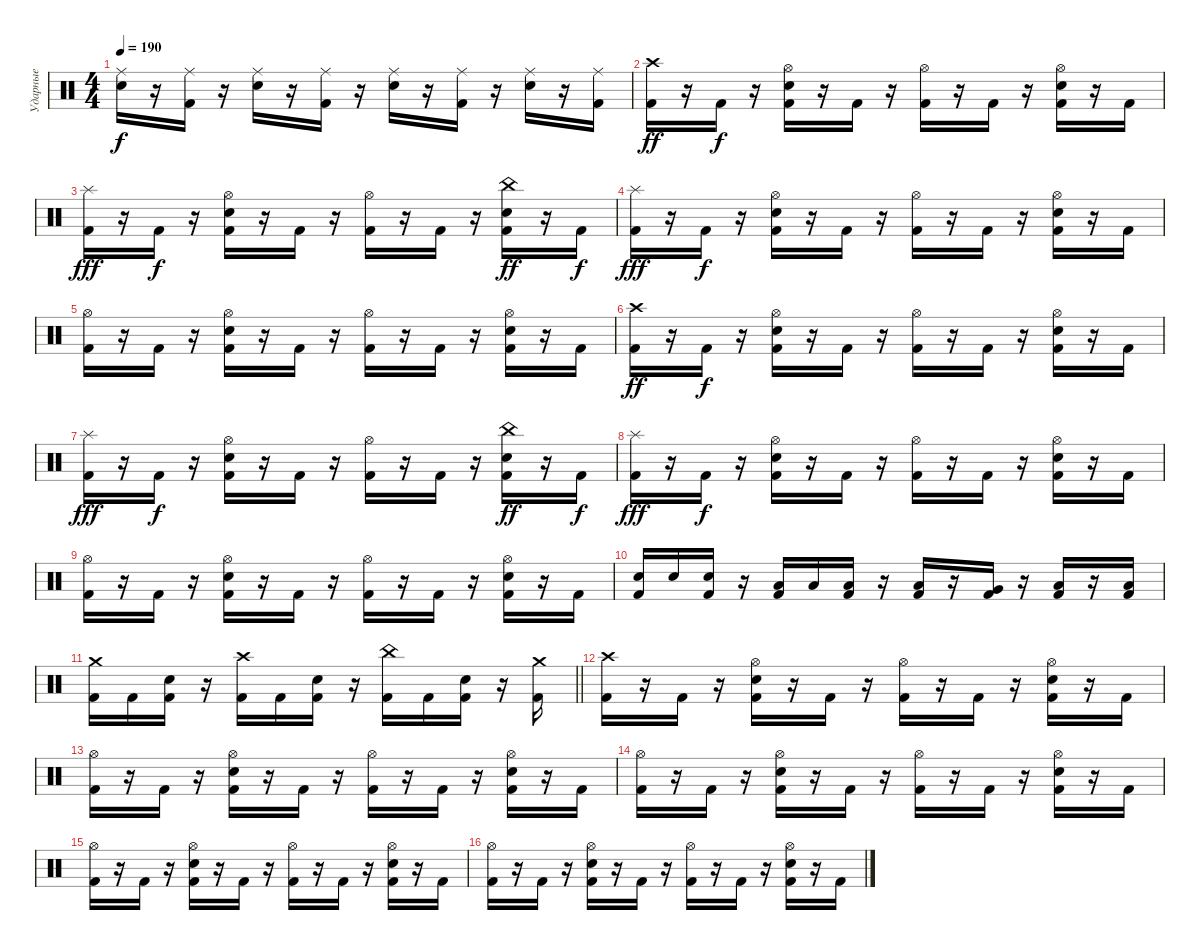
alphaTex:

\track ("Ударные" "Ударные") {instrument percussion}
\staff {score}
\articulation defaults
\ts (4 4)
\tempo 190
\clef neutral
\ks c
("Ride (middle)" "Snare (hit) 2").16{dy f} r.16 ("Ride (middle)" "Kick (hit) 2").16 r.16 ("Ride (middle)" "Snare (hit) 2").16 r.16 ("Ride (middle)" "Kick (hit) 2").16 r.16 ("Ride (middle)" "Snare (hit) 2").16 r.16 ("Ride (middle)" "Kick (hit) 2").16 r.16 ("Ride (middle)" "Snare (hit) 2").16 r.16 ("Ride (middle)" "Kick (hit) 2").16 |
("Crash high (hit)" "Kick (hit) 2").16{dy ff} r.16 "Kick (hit) 2".16{dy f} r.16 ("Hi-Hat (open)" "Snare (hit) 2" "Kick (hit) 2").16 r.16 "Kick (hit) 2".16 r.16 ("Hi-Hat (open)" "Kick (hit) 2").16 r.16 "Kick (hit) 2".16 r.16 ("Hi-Hat (open)" "Snare (hit) 2" "Kick (hit) 2").16 r.16 "Kick (hit) 2".16 |
("Splash (hit)" "Kick (hit) 2").16{dy fff} r.16 "Kick (hit) 2".16{dy f} r.16 ("Hi-Hat (open)" "Snare (hit) 2" "Kick (hit) 2").16 r.16 "Kick (hit) 2".16 r.16 ("Hi-Hat (open)" "Kick (hit) 2").16 r.16 "Kick (hit) 2".16 r.16 ("China (hit)" "Snare (hit) 2" "Kick (hit) 2").16{dy ff} r.16 "Kick (hit) 2".16{dy f} |
("Splash (hit)" "Kick (hit) 2").16{dy fff} r.16 "Kick (hit) 2".16{dy f} r.16 ("Hi-Hat (open)" "Snare (hit) 2" "Kick (hit) 2").16 r.16 "Kick (hit) 2".16 r.16 ("Hi-Hat (open)" "Kick (hit) 2").16 r.16 "Kick (hit) 2".16 r.16 ("Hi-Hat (open)" "Snare (hit) 2" "Kick (hit) 2").16 r.16 "Kick (hit) 2".16 |
("Hi-Hat (open)" "Kick (hit) 2").16 r.16 "Kick (hit) 2".16 r.16 ("Hi-Hat (open)" "Snare (hit) 2" "Kick (hit) 2").16 r.16 "Kick (hit) 2".16 r.16 ("Hi-Hat (open)" "Kick (hit) 2").16 r.16 "Kick (hit) 2".16 r.16 ("Hi-Hat (open)" "Snare (hit) 2" "Kick (hit) 2").16 r.16 "Kick (hit) 2".16 |
("Crash high (hit)" "Kick (hit) 2").16{dy ff} r.16 "Kick (hit) 2".16{dy f} r.16 ("Hi-Hat (open)" "Snare (hit) 2" "Kick (hit) 2").16 r.16 "Kick (hit) 2".16 r.16 ("Hi-Hat (open)" "Kick (hit) 2").16 r.16 "Kick (hit) 2".16 r.16 ("Hi-Hat (open)" "Snare (hit) 2" "Kick (hit) 2").16 r.16 "Kick (hit) 2".16 |
("Splash (hit)" "Kick (hit) 2").16{dy fff} r.16 "Kick (hit) 2".16{dy f} r.16 ("Hi-Hat (open)" "Snare (hit) 2" "Kick (hit) 2").16 r.16 "Kick (hit) 2".16 r.16 ("Hi-Hat (open)" "Kick (hit) 2").16 r.16 "Kick (hit) 2".16 r.16 ("China (hit)" "Snare (hit) 2" "Kick (hit) 2").16{dy ff} r.16 "Kick (hit) 2".16{dy f} |
("Splash (hit)" "Kick (hit) 2").16{dy fff} r.16 "Kick (hit) 2".16{dy f} r.16 ("Hi-Hat (open)" "Snare (hit) 2" "Kick (hit) 2").16 r.16 "Kick (hit) 2".16 r.16 ("Hi-Hat (open)" "Kick (hit) 2").16 r.16 "Kick (hit) 2".16 r.16 ("Hi-Hat (open)" "Snare (hit) 2" "Kick (hit) 2").16 r.16 "Kick (hit) 2".16 |
("Hi-Hat (open)" "Kick (hit) 2").16 r.16 "Kick (hit) 2".16 r.16 ("Hi-Hat (open)" "Snare (hit) 2" "Kick (hit) 2").16 r.16 "Kick (hit) 2".16 r.16 ("Hi-Hat (open)" "Kick (hit) 2").16 r.16 "Kick (hit) 2".16 r.16 ("Hi-Hat (open)" "Snare (hit) 2" "Kick (hit) 2").16 r.16 "Kick (hit) 2".16 |
("Snare (hit) 2" "Kick (hit) 2").16 "Snare (hit) 2".16 ("Snare (hit) 2" "Kick (hit) 2").16 r.16 ("Low Tom (hit)" "Kick (hit) 2").16 "Low Tom (hit)".16 ("Low Tom (hit)" "Kick (hit) 2").16 r.16 ("Low Tom (hit)" "Kick (hit) 2").16 r.16 ("Very Low Tom (hit)" "Kick (hit) 2").16 r.16 ("Low Floor Tom (hit)" "Kick (hit) 2").16 r.16 ("Low Floor Tom (hit)" "Kick (hit) 2").16 |
\barLineRight lightlight
("Crash medium (hit)" "Kick (hit) 2").16 "Kick (hit) 2".16 ("Snare (hit) 2" "Kick (hit) 2").16 r.16 ("Crash high (hit)" "Kick (hit) 2").16 "Kick (hit) 2".16 ("Snare (hit) 2" "Kick (hit) 2").16 r.16 ("China (hit)" "Kick (hit) 2").16 "Kick (hit) 2".16 ("Snare (hit) 2" "Kick (hit) 2").16 r.16 ("Crash medium (hit)" "Kick (hit) 2").16 |
("Crash high (hit)" "Kick (hit) 2").16 r.16 "Kick (hit) 2".16 r.16 ("Hi-Hat (open)" "Snare (hit) 2" "Kick (hit) 2").16 r.16 "Kick (hit) 2".16 r.16 ("Hi-Hat (open)" "Kick (hit) 2").16 r.16 "Kick (hit) 2".16 r.16 ("Hi-Hat (open)" "Snare (hit) 2" "Kick (hit) 2").16 r.16 "Kick (hit) 2".16 |
("Hi-Hat (open)" "Kick (hit) 2").16 r.16 "Kick (hit) 2".16 r.16 ("Hi-Hat (open)" "Snare (hit) 2" "Kick (hit) 2").16 r.16 "Kick (hit) 2".16 r.16 ("Hi-Hat (open)" "Kick (hit) 2").16 r.16 "Kick (hit) 2".16 r.16 ("Hi-Hat (open)" "Snare (hit) 2" "Kick (hit) 2").16 r.16 "Kick (hit) 2".16 |
("Hi-Hat (open)" "Kick (hit) 2").16 r.16 "Kick (hit) 2".16 r.16 ("Hi-Hat (open)" "Snare (hit) 2" "Kick (hit) 2").16 r.16 "Kick (hit) 2".16 r.16 ("Hi-Hat (open)" "Kick (hit) 2").16 r.16 "Kick (hit) 2".16 r.16 ("Hi-Hat (open)" "Snare (hit) 2" "Kick (hit) 2").16 r.16 "Kick (hit) 2".16 |
("Hi-Hat (open)" "Kick (hit) 2").16 r.16 "Kick (hit) 2".16 r.16 ("Hi-Hat (open)" "Snare (hit) 2" "Kick (hit) 2").16 r.16 "Kick (hit) 2".16 r.16 ("Hi-Hat (open)" "Kick (hit) 2").16 r.16 "Kick (hit) 2".16 r.16 ("Hi-Hat (open)" "Snare (hit) 2" "Kick (hit) 2").16 r.16 "Kick (hit) 2".16 |
("Hi-Hat (open)" "Kick (hit) 2").16 r.16 "Kick (hit) 2".16 r.16 ("Hi-Hat (open)" "Snare (hit) 2" "Kick (hit) 2").16 r.16 "Kick (hit) 2".16 r.16 ("Hi-Hat (open)" "Kick (hit) 2").16 r.16 "Kick (hit) 2".16 r.16 ("Hi-Hat (open)" "Snare (hit) 2" "Kick (hit) 2").16 r.16 "Kick (hit) 2".16
